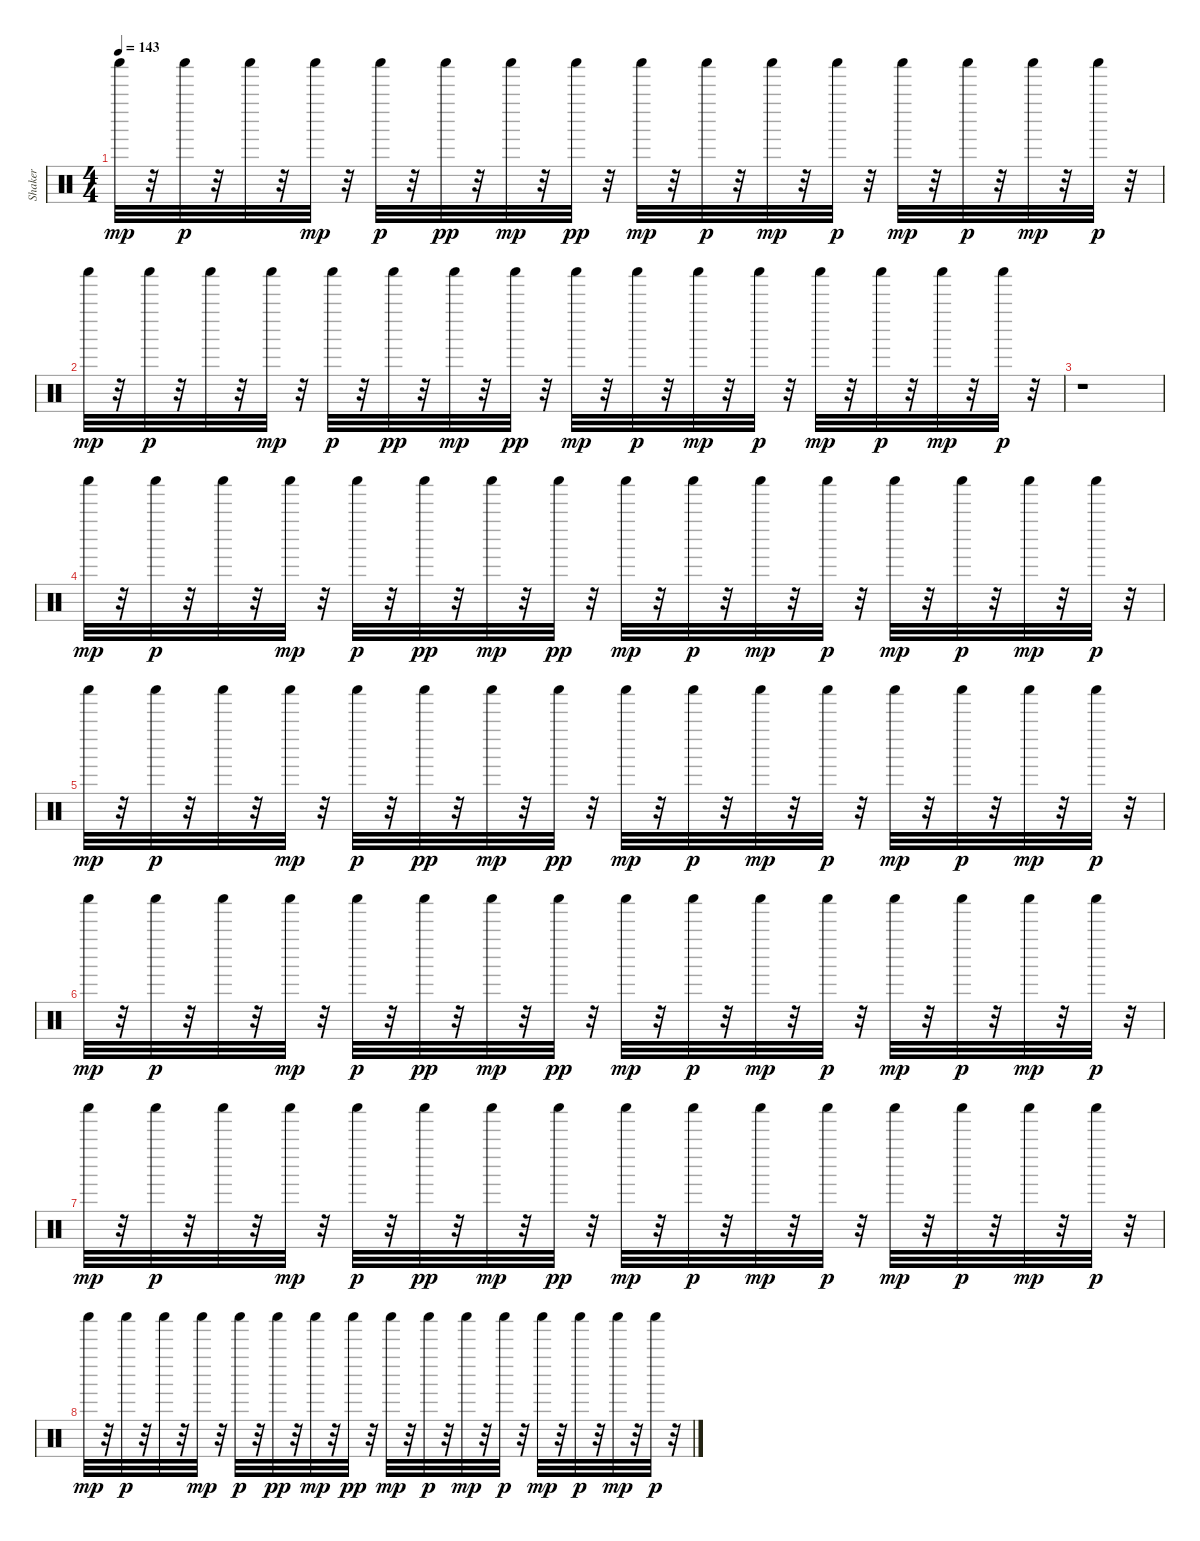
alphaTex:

\track ("Shaker   " "Shaker   ") {instrument percussion}
\staff {score}
\articulation defaults
\ts (4 4)
\tempo 143
\clef neutral
\ks c "Shaker (hit)".32{dy mp}
r.32 "Shaker (hit)".32{dy p} r.32 "Shaker (hit)".32 r.32 "Shaker (hit)".32{dy mp} r.32 "Shaker (hit)".32{dy p} r.32 "Shaker (hit)".32{dy pp} r.32 "Shaker (hit)".32{dy mp} r.32 "Shaker (hit)".32{dy pp} r.32 "Shaker (hit)".32{dy mp} r.32 "Shaker (hit)".32{dy p} r.32 "Shaker (hit)".32{dy mp} r.32 "Shaker (hit)".32{dy p} r.32 "Shaker (hit)".32{dy mp} r.32 "Shaker (hit)".32{dy p} r.32 "Shaker (hit)".32{dy mp} r.32 "Shaker (hit)".32{dy p} r.32 |
"Shaker (hit)".32{dy mp} r.32 "Shaker (hit)".32{dy p} r.32 "Shaker (hit)".32 r.32 "Shaker (hit)".32{dy mp} r.32 "Shaker (hit)".32{dy p} r.32 "Shaker (hit)".32{dy pp} r.32 "Shaker (hit)".32{dy mp} r.32 "Shaker (hit)".32{dy pp} r.32 "Shaker (hit)".32{dy mp} r.32 "Shaker (hit)".32{dy p} r.32 "Shaker (hit)".32{dy mp} r.32 "Shaker (hit)".32{dy p} r.32 "Shaker (hit)".32{dy mp} r.32 "Shaker (hit)".32{dy p} r.32 "Shaker (hit)".32{dy mp} r.32 "Shaker (hit)".32{dy p} r.32 |
r.1 |
"Shaker (hit)".32{dy mp} r.32 "Shaker (hit)".32{dy p} r.32 "Shaker (hit)".32 r.32 "Shaker (hit)".32{dy mp} r.32 "Shaker (hit)".32{dy p} r.32 "Shaker (hit)".32{dy pp} r.32 "Shaker (hit)".32{dy mp} r.32 "Shaker (hit)".32{dy pp} r.32 "Shaker (hit)".32{dy mp} r.32 "Shaker (hit)".32{dy p} r.32 "Shaker (hit)".32{dy mp} r.32 "Shaker (hit)".32{dy p} r.32 "Shaker (hit)".32{dy mp} r.32 "Shaker (hit)".32{dy p} r.32 "Shaker (hit)".32{dy mp} r.32 "Shaker (hit)".32{dy p} r.32 |
"Shaker (hit)".32{dy mp} r.32 "Shaker (hit)".32{dy p} r.32 "Shaker (hit)".32 r.32 "Shaker (hit)".32{dy mp} r.32 "Shaker (hit)".32{dy p} r.32 "Shaker (hit)".32{dy pp} r.32 "Shaker (hit)".32{dy mp} r.32 "Shaker (hit)".32{dy pp} r.32 "Shaker (hit)".32{dy mp} r.32 "Shaker (hit)".32{dy p} r.32 "Shaker (hit)".32{dy mp} r.32 "Shaker (hit)".32{dy p} r.32 "Shaker (hit)".32{dy mp} r.32 "Shaker (hit)".32{dy p} r.32 "Shaker (hit)".32{dy mp} r.32 "Shaker (hit)".32{dy p} r.32 |
"Shaker (hit)".32{dy mp} r.32 "Shaker (hit)".32{dy p} r.32 "Shaker (hit)".32 r.32 "Shaker (hit)".32{dy mp} r.32 "Shaker (hit)".32{dy p} r.32 "Shaker (hit)".32{dy pp} r.32 "Shaker (hit)".32{dy mp} r.32 "Shaker (hit)".32{dy pp} r.32 "Shaker (hit)".32{dy mp} r.32 "Shaker (hit)".32{dy p} r.32 "Shaker (hit)".32{dy mp} r.32 "Shaker (hit)".32{dy p} r.32 "Shaker (hit)".32{dy mp} r.32 "Shaker (hit)".32{dy p} r.32 "Shaker (hit)".32{dy mp} r.32 "Shaker (hit)".32{dy p} r.32 |
"Shaker (hit)".32{dy mp} r.32 "Shaker (hit)".32{dy p} r.32 "Shaker (hit)".32 r.32 "Shaker (hit)".32{dy mp} r.32 "Shaker (hit)".32{dy p} r.32 "Shaker (hit)".32{dy pp} r.32 "Shaker (hit)".32{dy mp} r.32 "Shaker (hit)".32{dy pp} r.32 "Shaker (hit)".32{dy mp} r.32 "Shaker (hit)".32{dy p} r.32 "Shaker (hit)".32{dy mp} r.32 "Shaker (hit)".32{dy p} r.32 "Shaker (hit)".32{dy mp} r.32 "Shaker (hit)".32{dy p} r.32 "Shaker (hit)".32{dy mp} r.32 "Shaker (hit)".32{dy p} r.32 |
"Shaker (hit)".32{dy mp} r.32 "Shaker (hit)".32{dy p} r.32 "Shaker (hit)".32 r.32 "Shaker (hit)".32{dy mp} r.32 "Shaker (hit)".32{dy p} r.32 "Shaker (hit)".32{dy pp} r.32 "Shaker (hit)".32{dy mp} r.32 "Shaker (hit)".32{dy pp} r.32 "Shaker (hit)".32{dy mp} r.32 "Shaker (hit)".32{dy p} r.32 "Shaker (hit)".32{dy mp} r.32 "Shaker (hit)".32{dy p} r.32 "Shaker (hit)".32{dy mp} r.32 "Shaker (hit)".32{dy p} r.32 "Shaker (hit)".32{dy mp} r.32 "Shaker (hit)".32{dy p} r.32
